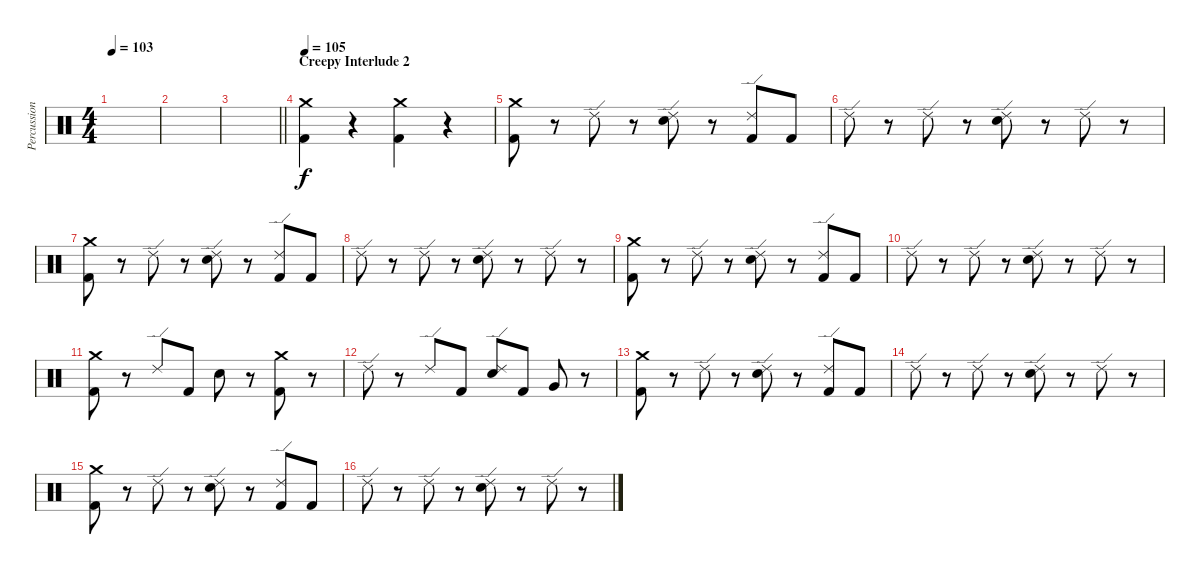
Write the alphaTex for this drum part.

\track ("Percussion" "Percussion") {instrument percussion}
\staff {score}
\articulation defaults
\ts (4 4)
\tempo 103
\clef neutral
\ks c
|
|
\barLineRight lightlight
|
\section ("" "Creepy Interlude 2")
\tempo 105
("Kick (hit) 2" "Crash medium (hit)").4 r.4 ("Kick (hit) 2" "Crash medium (hit)").4 r.4 |
("Crash medium (hit)" "Kick (hit) 2").8 r.8 "Ride (edge) 2".8 r.8 ("Ride (edge) 2" "Electric Snare (hit)").8 r.8 ("Ride (edge) 2" "Kick (hit) 2").8 "Kick (hit) 2".8 |
"Ride (edge) 2".8 r.8 "Ride (edge) 2".8 r.8 ("Ride (edge) 2" "Electric Snare (hit)").8 r.8 "Ride (edge) 2".8 r.8 |
("Crash medium (hit)" "Kick (hit) 2").8 r.8 "Ride (edge) 2".8 r.8 ("Ride (edge) 2" "Electric Snare (hit)").8 r.8 ("Ride (edge) 2" "Kick (hit) 2").8 "Kick (hit) 2".8 |
"Ride (edge) 2".8 r.8 "Ride (edge) 2".8 r.8 ("Ride (edge) 2" "Electric Snare (hit)").8 r.8 "Ride (edge) 2".8 r.8 |
("Crash medium (hit)" "Kick (hit) 2").8 r.8 "Ride (edge) 2".8 r.8 ("Ride (edge) 2" "Electric Snare (hit)").8 r.8 ("Ride (edge) 2" "Kick (hit) 2").8 "Kick (hit) 2".8 |
"Ride (edge) 2".8 r.8 "Ride (edge) 2".8 r.8 ("Ride (edge) 2" "Electric Snare (hit)").8 r.8 "Ride (edge) 2".8 r.8 |
("Crash medium (hit)" "Kick (hit) 2").8 r.8 "Ride (edge) 2".8 "Kick (hit) 2".8 "Electric Snare (hit)".8 r.8 ("Crash medium (hit)" "Kick (hit) 2").8 r.8 |
"Ride (edge) 2".8 r.8 "Ride (edge) 2".8 "Kick (hit) 2".8 ("Ride (edge) 2" "Electric Snare (hit)").8 "Kick (hit) 2".8 "Very Low Tom (hit)".8 r.8 |
("Crash medium (hit)" "Kick (hit) 2").8 r.8 "Ride (edge) 2".8 r.8 ("Ride (edge) 2" "Electric Snare (hit)").8 r.8 ("Ride (edge) 2" "Kick (hit) 2").8 "Kick (hit) 2".8 |
"Ride (edge) 2".8 r.8 "Ride (edge) 2".8 r.8 ("Ride (edge) 2" "Electric Snare (hit)").8 r.8 "Ride (edge) 2".8 r.8 |
("Crash medium (hit)" "Kick (hit) 2").8 r.8 "Ride (edge) 2".8 r.8 ("Ride (edge) 2" "Electric Snare (hit)").8 r.8 ("Ride (edge) 2" "Kick (hit) 2").8 "Kick (hit) 2".8 |
"Ride (edge) 2".8 r.8 "Ride (edge) 2".8 r.8 ("Ride (edge) 2" "Electric Snare (hit)").8 r.8 "Ride (edge) 2".8 r.8
